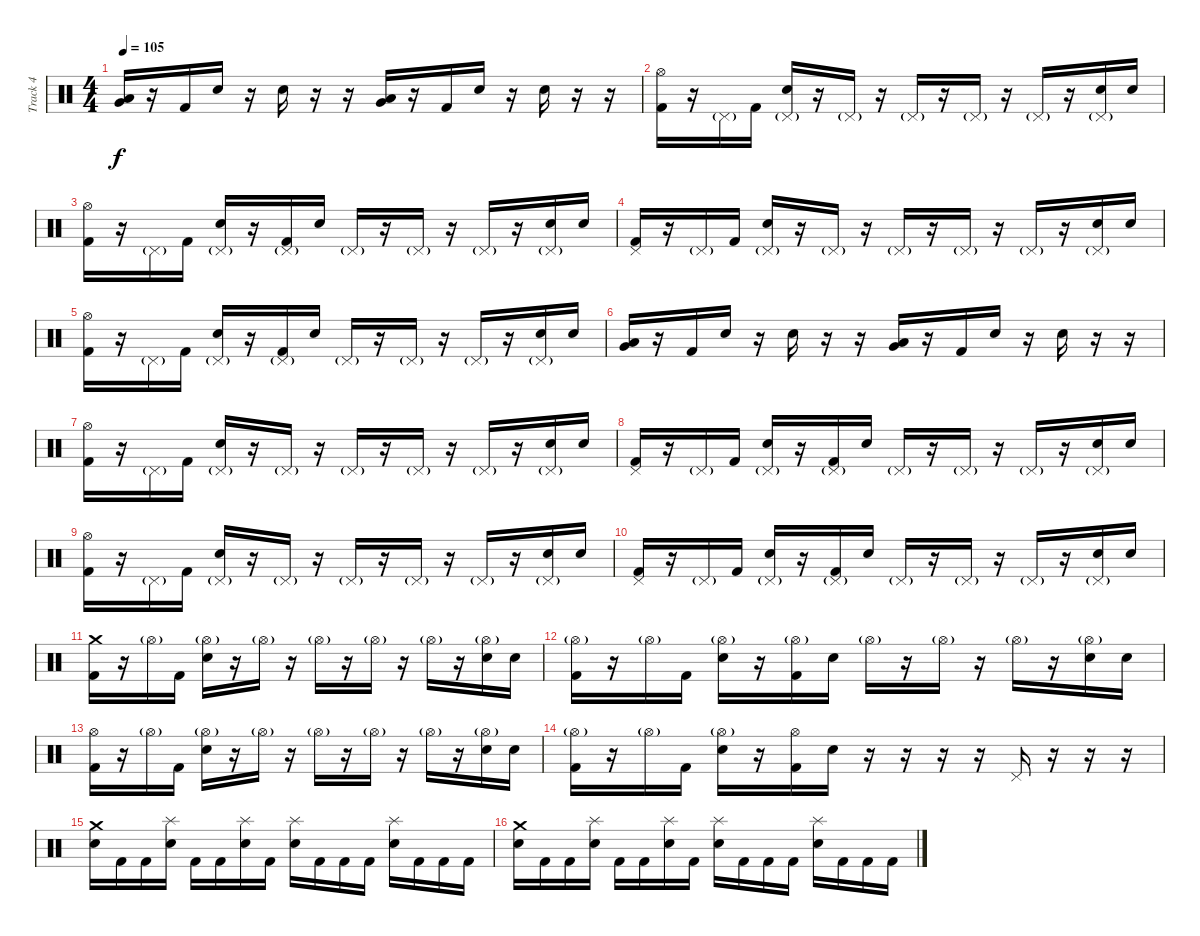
\track ("Track 4" "Track 4") {instrument percussion}
\staff {score}
\articulation defaults
\ts (4 4)
\tempo 105
\clef neutral
\ks c
("Very Low Tom (hit)" "Low Tom (hit)").16{dy f} r.16 "Kick (hit) 2".16 "Electric Snare (hit)".16 r.16 "Electric Snare (hit)".16 r.16 r.16 ("Very Low Tom (hit)" "Low Tom (hit)").16 r.16 "Kick (hit) 2".16 "Electric Snare (hit)".16 r.16 "Electric Snare (hit)".16 r.16 r.16 |
("Hi-Hat (open)" "Kick (hit) 2").16 r.16 "Pedal Hi-Hat (hit)"{g}.16 "Kick (hit) 2".16 ("Pedal Hi-Hat (hit)"{g} "Electric Snare (hit)").16 r.16 "Pedal Hi-Hat (hit)"{g}.16 r.16 "Pedal Hi-Hat (hit)"{g}.16 r.16 "Pedal Hi-Hat (hit)"{g}.16 r.16 "Pedal Hi-Hat (hit)"{g}.16 r.16 ("Pedal Hi-Hat (hit)"{g} "Electric Snare (hit)").16 "Electric Snare (hit)".16 |
("Hi-Hat (open)" "Kick (hit) 2").16 r.16 "Pedal Hi-Hat (hit)"{g}.16 "Kick (hit) 2".16 ("Pedal Hi-Hat (hit)"{g} "Electric Snare (hit)").16 r.16 ("Pedal Hi-Hat (hit)"{g} "Kick (hit) 2").16 "Electric Snare (hit)".16 "Pedal Hi-Hat (hit)"{g}.16 r.16 "Pedal Hi-Hat (hit)"{g}.16 r.16 "Pedal Hi-Hat (hit)"{g}.16 r.16 ("Pedal Hi-Hat (hit)"{g} "Electric Snare (hit)").16 "Electric Snare (hit)".16 |
("Pedal Hi-Hat (hit)" "Kick (hit) 2").16 r.16 "Pedal Hi-Hat (hit)"{g}.16 "Kick (hit) 2".16 ("Pedal Hi-Hat (hit)"{g} "Electric Snare (hit)").16 r.16 "Pedal Hi-Hat (hit)"{g}.16 r.16 "Pedal Hi-Hat (hit)"{g}.16 r.16 "Pedal Hi-Hat (hit)"{g}.16 r.16 "Pedal Hi-Hat (hit)"{g}.16 r.16 ("Pedal Hi-Hat (hit)"{g} "Electric Snare (hit)").16 "Electric Snare (hit)".16 |
("Hi-Hat (open)" "Kick (hit) 2").16 r.16 "Pedal Hi-Hat (hit)"{g}.16 "Kick (hit) 2".16 ("Pedal Hi-Hat (hit)"{g} "Electric Snare (hit)").16 r.16 ("Pedal Hi-Hat (hit)"{g} "Kick (hit) 2").16 "Electric Snare (hit)".16 "Pedal Hi-Hat (hit)"{g}.16 r.16 "Pedal Hi-Hat (hit)"{g}.16 r.16 "Pedal Hi-Hat (hit)"{g}.16 r.16 ("Pedal Hi-Hat (hit)"{g} "Electric Snare (hit)").16 "Electric Snare (hit)".16 |
("Very Low Tom (hit)" "Low Tom (hit)").16 r.16 "Kick (hit) 2".16 "Electric Snare (hit)".16 r.16 "Electric Snare (hit)".16 r.16 r.16 ("Very Low Tom (hit)" "Low Tom (hit)").16 r.16 "Kick (hit) 2".16 "Electric Snare (hit)".16 r.16 "Electric Snare (hit)".16 r.16 r.16 |
("Hi-Hat (open)" "Kick (hit) 2").16 r.16 "Pedal Hi-Hat (hit)"{g}.16 "Kick (hit) 2".16 ("Pedal Hi-Hat (hit)"{g} "Electric Snare (hit)").16 r.16 "Pedal Hi-Hat (hit)"{g}.16 r.16 "Pedal Hi-Hat (hit)"{g}.16 r.16 "Pedal Hi-Hat (hit)"{g}.16 r.16 "Pedal Hi-Hat (hit)"{g}.16 r.16 ("Pedal Hi-Hat (hit)"{g} "Electric Snare (hit)").16 "Electric Snare (hit)".16 |
("Pedal Hi-Hat (hit)" "Kick (hit) 2").16 r.16 "Pedal Hi-Hat (hit)"{g}.16 "Kick (hit) 2".16 ("Pedal Hi-Hat (hit)"{g} "Electric Snare (hit)").16 r.16 ("Pedal Hi-Hat (hit)"{g} "Kick (hit) 2").16 "Electric Snare (hit)".16 "Pedal Hi-Hat (hit)"{g}.16 r.16 "Pedal Hi-Hat (hit)"{g}.16 r.16 "Pedal Hi-Hat (hit)"{g}.16 r.16 ("Pedal Hi-Hat (hit)"{g} "Electric Snare (hit)").16 "Electric Snare (hit)".16 |
("Hi-Hat (open)" "Kick (hit) 2").16 r.16 "Pedal Hi-Hat (hit)"{g}.16 "Kick (hit) 2".16 ("Pedal Hi-Hat (hit)"{g} "Electric Snare (hit)").16 r.16 "Pedal Hi-Hat (hit)"{g}.16 r.16 "Pedal Hi-Hat (hit)"{g}.16 r.16 "Pedal Hi-Hat (hit)"{g}.16 r.16 "Pedal Hi-Hat (hit)"{g}.16 r.16 ("Pedal Hi-Hat (hit)"{g} "Electric Snare (hit)").16 "Electric Snare (hit)".16 |
("Pedal Hi-Hat (hit)" "Kick (hit) 2").16 r.16 "Pedal Hi-Hat (hit)"{g}.16 "Kick (hit) 2".16 ("Pedal Hi-Hat (hit)"{g} "Electric Snare (hit)").16 r.16 ("Pedal Hi-Hat (hit)"{g} "Kick (hit) 2").16 "Electric Snare (hit)".16 "Pedal Hi-Hat (hit)"{g}.16 r.16 "Pedal Hi-Hat (hit)"{g}.16 r.16 "Pedal Hi-Hat (hit)"{g}.16 r.16 ("Pedal Hi-Hat (hit)"{g} "Electric Snare (hit)").16 "Electric Snare (hit)".16 |
("Crash medium (hit)" "Kick (hit) 2").16 r.16 "Hi-Hat (open)"{g}.16 "Kick (hit) 2".16 ("Hi-Hat (open)"{g} "Electric Snare (hit)").16 r.16 "Hi-Hat (open)"{g}.16 r.16 "Hi-Hat (open)"{g}.16 r.16 "Hi-Hat (open)"{g}.16 r.16 "Hi-Hat (open)"{g}.16 r.16 ("Hi-Hat (open)"{g} "Electric Snare (hit)").16 "Electric Snare (hit)".16 |
("Hi-Hat (open)"{g} "Kick (hit) 2").16 r.16 "Hi-Hat (open)"{g}.16 "Kick (hit) 2".16 ("Hi-Hat (open)"{g} "Electric Snare (hit)").16 r.16 ("Hi-Hat (open)"{g} "Kick (hit) 2").16 "Electric Snare (hit)".16 "Hi-Hat (open)"{g}.16 r.16 "Hi-Hat (open)"{g}.16 r.16 "Hi-Hat (open)"{g}.16 r.16 ("Hi-Hat (open)"{g} "Electric Snare (hit)").16 "Electric Snare (hit)".16 |
("Hi-Hat (open)" "Kick (hit) 2").16 r.16 "Hi-Hat (open)"{g}.16 "Kick (hit) 2".16 ("Hi-Hat (open)"{g} "Electric Snare (hit)").16 r.16 "Hi-Hat (open)"{g}.16 r.16 "Hi-Hat (open)"{g}.16 r.16 "Hi-Hat (open)"{g}.16 r.16 "Hi-Hat (open)"{g}.16 r.16 ("Hi-Hat (open)"{g} "Electric Snare (hit)").16 "Electric Snare (hit)".16 |
("Hi-Hat (open)"{g} "Kick (hit) 2").16 r.16 "Hi-Hat (open)"{g}.16 "Kick (hit) 2".16 ("Hi-Hat (open)"{g} "Electric Snare (hit)").16 r.16 ("Hi-Hat (open)" "Kick (hit) 2").16 "Electric Snare (hit)".16 r.16 r.16 r.16 r.16 "Pedal Hi-Hat (hit)".16 r.16 r.16 r.16 |
("Crash medium (hit)" "Electric Snare (hit)").16 "Kick (hit) 2".16 "Kick (hit) 2".16 ("Splash (hit)" "Electric Snare (hit)").16 "Kick (hit) 2".16 "Kick (hit) 2".16 ("Splash (hit)" "Electric Snare (hit)").16 "Kick (hit) 2".16 ("Splash (hit)" "Electric Snare (hit)").16 "Kick (hit) 2".16 "Kick (hit) 2".16 "Kick (hit) 2".16 ("Splash (hit)" "Electric Snare (hit)").16 "Kick (hit) 2".16 "Kick (hit) 2".16 "Kick (hit) 2".16 |
("Crash medium (hit)" "Electric Snare (hit)").16 "Kick (hit) 2".16 "Kick (hit) 2".16 ("Splash (hit)" "Electric Snare (hit)").16 "Kick (hit) 2".16 "Kick (hit) 2".16 ("Splash (hit)" "Electric Snare (hit)").16 "Kick (hit) 2".16 ("Splash (hit)" "Electric Snare (hit)").16 "Kick (hit) 2".16 "Kick (hit) 2".16 "Kick (hit) 2".16 ("Splash (hit)" "Electric Snare (hit)").16 "Kick (hit) 2".16 "Kick (hit) 2".16 "Kick (hit) 2".16
